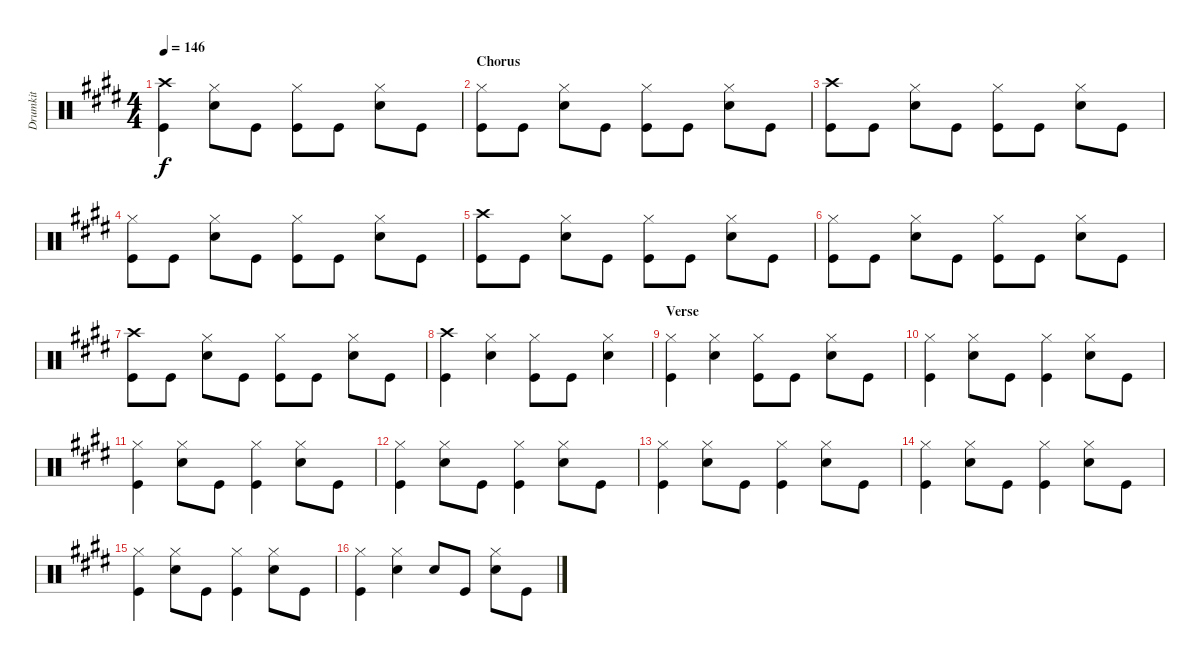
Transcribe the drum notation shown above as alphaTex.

\track ("Drumkit" "Drumkit") {instrument percussion}
\staff {score}
\articulation defaults
\ts (4 4)
\tempo 146
\clef neutral
\ks e
("Kick (hit)" "Crash high (hit)").4{dy f} ("Snare (hit) 2" "Hi-Hat (closed)").8 "Kick (hit)".8 ("Kick (hit)" "Hi-Hat (closed)").8 "Kick (hit)".8 ("Snare (hit) 2" "Hi-Hat (closed)").8 "Kick (hit)".8 |
\section ("" "Chorus")
("Kick (hit)" "Hi-Hat (closed)").8 "Kick (hit)".8 ("Snare (hit) 2" "Hi-Hat (closed)").8 "Kick (hit)".8 ("Kick (hit)" "Hi-Hat (closed)").8 "Kick (hit)".8 ("Snare (hit) 2" "Hi-Hat (closed)").8 "Kick (hit)".8 |
("Kick (hit)" "Crash high (hit)").8 "Kick (hit)".8 ("Snare (hit) 2" "Hi-Hat (closed)").8 "Kick (hit)".8 ("Kick (hit)" "Hi-Hat (closed)").8 "Kick (hit)".8 ("Snare (hit) 2" "Hi-Hat (closed)").8 "Kick (hit)".8 |
("Kick (hit)" "Hi-Hat (closed)").8 "Kick (hit)".8 ("Snare (hit) 2" "Hi-Hat (closed)").8 "Kick (hit)".8 ("Kick (hit)" "Hi-Hat (closed)").8 "Kick (hit)".8 ("Snare (hit) 2" "Hi-Hat (closed)").8 "Kick (hit)".8 |
("Kick (hit)" "Crash high (hit)").8 "Kick (hit)".8 ("Snare (hit) 2" "Hi-Hat (closed)").8 "Kick (hit)".8 ("Kick (hit)" "Hi-Hat (closed)").8 "Kick (hit)".8 ("Snare (hit) 2" "Hi-Hat (closed)").8 "Kick (hit)".8 |
("Kick (hit)" "Hi-Hat (closed)").8 "Kick (hit)".8 ("Snare (hit) 2" "Hi-Hat (closed)").8 "Kick (hit)".8 ("Kick (hit)" "Hi-Hat (closed)").8 "Kick (hit)".8 ("Snare (hit) 2" "Hi-Hat (closed)").8 "Kick (hit)".8 |
("Kick (hit)" "Crash high (hit)").8 "Kick (hit)".8 ("Snare (hit) 2" "Hi-Hat (closed)").8 "Kick (hit)".8 ("Kick (hit)" "Hi-Hat (closed)").8 "Kick (hit)".8 ("Snare (hit) 2" "Hi-Hat (closed)").8 "Kick (hit)".8 |
("Kick (hit)" "Crash high (hit)").4 ("Snare (hit) 2" "Hi-Hat (closed)").4 ("Kick (hit)" "Hi-Hat (closed)").8 "Kick (hit)".8 ("Snare (hit) 2" "Hi-Hat (closed)").4 |
\section ("" "Verse")
("Kick (hit)" "Hi-Hat (closed)").4 ("Snare (hit) 2" "Hi-Hat (closed)").4 ("Kick (hit)" "Hi-Hat (closed)").8 "Kick (hit)".8 ("Snare (hit) 2" "Hi-Hat (closed)").8 "Kick (hit)".8 |
("Kick (hit)" "Hi-Hat (closed)").4 ("Snare (hit) 2" "Hi-Hat (closed)").8 "Kick (hit)".8 ("Kick (hit)" "Hi-Hat (closed)").4 ("Snare (hit) 2" "Hi-Hat (closed)").8 "Kick (hit)".8 |
("Kick (hit)" "Hi-Hat (closed)").4 ("Snare (hit) 2" "Hi-Hat (closed)").8 "Kick (hit)".8 ("Kick (hit)" "Hi-Hat (closed)").4 ("Snare (hit) 2" "Hi-Hat (closed)").8 "Kick (hit)".8 |
("Kick (hit)" "Hi-Hat (closed)").4 ("Snare (hit) 2" "Hi-Hat (closed)").8 "Kick (hit)".8 ("Kick (hit)" "Hi-Hat (closed)").4 ("Snare (hit) 2" "Hi-Hat (closed)").8 "Kick (hit)".8 |
("Kick (hit)" "Hi-Hat (closed)").4 ("Snare (hit) 2" "Hi-Hat (closed)").8 "Kick (hit)".8 ("Kick (hit)" "Hi-Hat (closed)").4 ("Snare (hit) 2" "Hi-Hat (closed)").8 "Kick (hit)".8 |
("Kick (hit)" "Hi-Hat (closed)").4 ("Snare (hit) 2" "Hi-Hat (closed)").8 "Kick (hit)".8 ("Kick (hit)" "Hi-Hat (closed)").4 ("Snare (hit) 2" "Hi-Hat (closed)").8 "Kick (hit)".8 |
("Kick (hit)" "Hi-Hat (closed)").4 ("Snare (hit) 2" "Hi-Hat (closed)").8 "Kick (hit)".8 ("Kick (hit)" "Hi-Hat (closed)").4 ("Snare (hit) 2" "Hi-Hat (closed)").8 "Kick (hit)".8 |
("Kick (hit)" "Hi-Hat (closed)").4 ("Snare (hit) 2" "Hi-Hat (closed)").4 "Snare (hit) 2".8 "Kick (hit)".8 ("Snare (hit) 2" "Hi-Hat (closed)").8 "Kick (hit)".8
